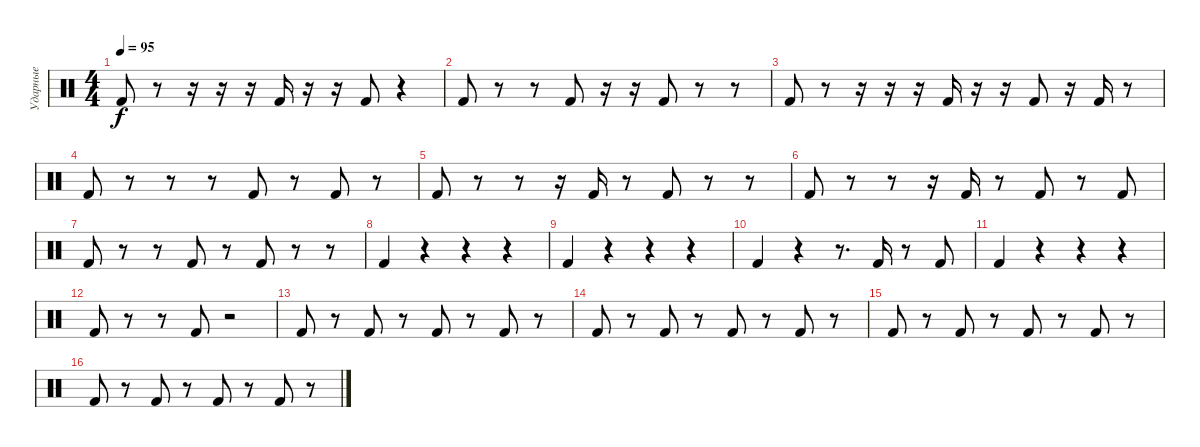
\track ("Ударные" "Ударные") {instrument percussion}
\staff {score}
\articulation defaults
\ts (4 4)
\tempo 95
\clef neutral
\ks c "Kick (hit) 2".8{dy f}
r.8 r.16 r.16 r.16 "Kick (hit) 2".16 r.16 r.16 "Kick (hit) 2".8 r.4 |
"Kick (hit) 2".8 r.8 r.8 "Kick (hit) 2".8 r.16 r.16 "Kick (hit) 2".8 r.8 r.8 |
"Kick (hit) 2".8 r.8 r.16 r.16 r.16 "Kick (hit) 2".16 r.16 r.16 "Kick (hit) 2".8 r.16 "Kick (hit) 2".16 r.8 |
"Kick (hit) 2".8 r.8 r.8 r.8 "Kick (hit) 2".8 r.8 "Kick (hit) 2".8 r.8 |
"Kick (hit) 2".8 r.8 r.8 r.16 "Kick (hit) 2".16 r.8 "Kick (hit) 2".8 r.8 r.8 |
"Kick (hit) 2".8 r.8 r.8 r.16 "Kick (hit) 2".16 r.8 "Kick (hit) 2".8 r.8 "Kick (hit) 2".8 |
"Kick (hit) 2".8 r.8 r.8 "Kick (hit) 2".8 r.8 "Kick (hit) 2".8 r.8 r.8 |
"Kick (hit) 2".4 r.4 r.4 r.4 |
"Kick (hit) 2".4 r.4 r.4 r.4 |
"Kick (hit) 2".4 r.4 r.8{d} "Kick (hit) 2".16 r.8 "Kick (hit) 2".8 |
"Kick (hit) 2".4 r.4 r.4 r.4 |
"Kick (hit) 2".8 r.8 r.8 "Kick (hit) 2".8 r.2 |
"Kick (hit) 2".8 r.8 "Kick (hit) 2".8 r.8 "Kick (hit) 2".8 r.8 "Kick (hit) 2".8 r.8 |
"Kick (hit) 2".8 r.8 "Kick (hit) 2".8 r.8 "Kick (hit) 2".8 r.8 "Kick (hit) 2".8 r.8 |
"Kick (hit) 2".8 r.8 "Kick (hit) 2".8 r.8 "Kick (hit) 2".8 r.8 "Kick (hit) 2".8 r.8 |
"Kick (hit) 2".8 r.8 "Kick (hit) 2".8 r.8 "Kick (hit) 2".8 r.8 "Kick (hit) 2".8 r.8
